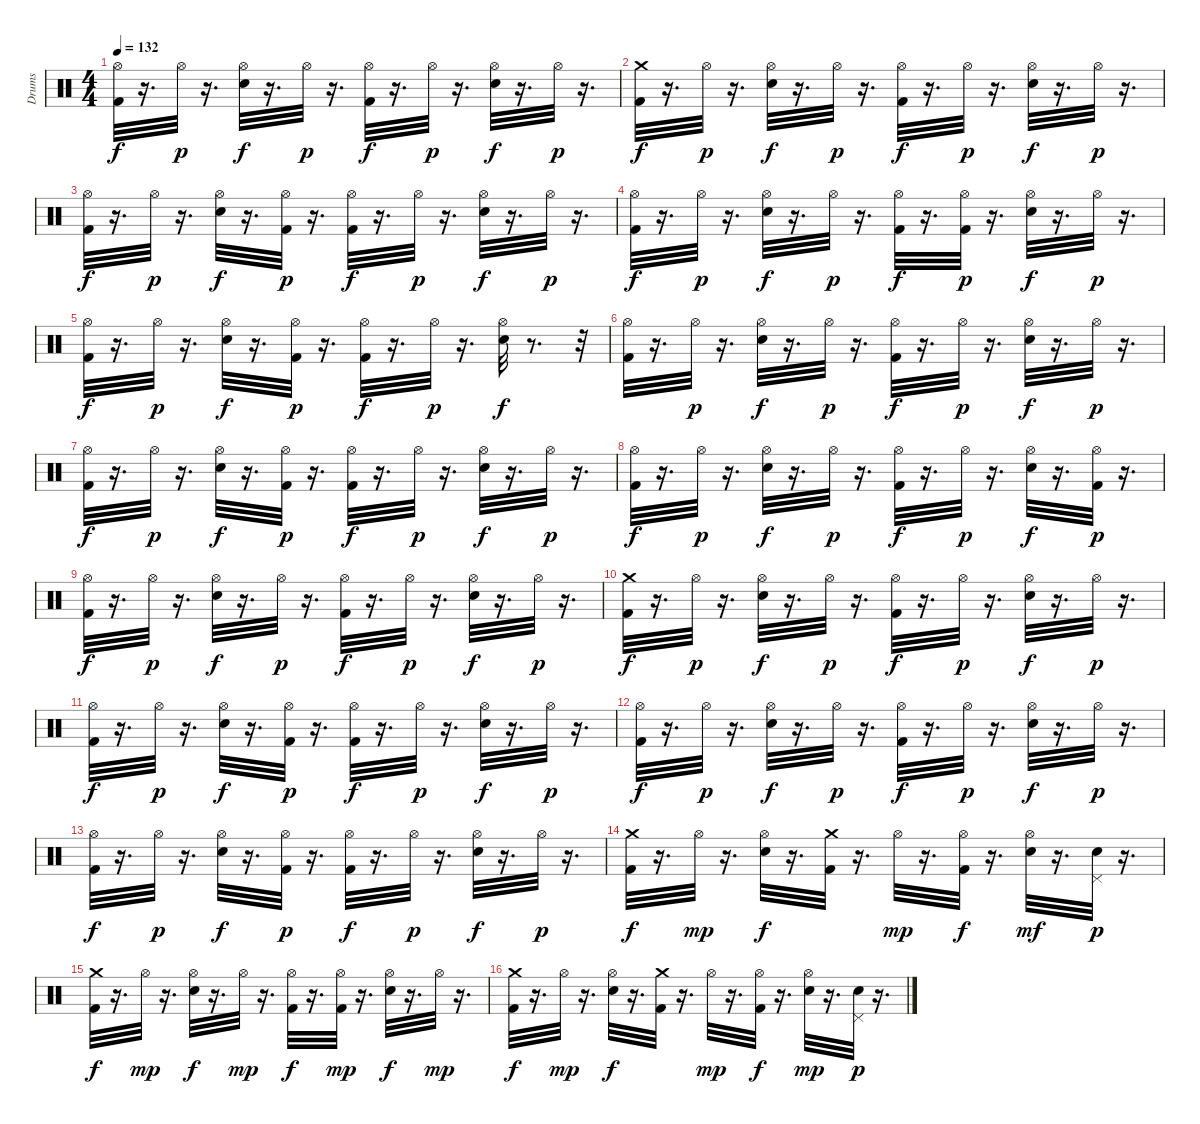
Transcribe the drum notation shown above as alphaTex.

\track ("Drums" "Drums") {instrument percussion}
\staff {score}
\articulation defaults
\ts (4 4)
\tempo 132
\clef neutral
\ks c
("Hi-Hat (open)" "Kick (hit) 2").32{dy f} r.16{d} "Hi-Hat (open)".32{dy p} r.16{d} ("Hi-Hat (open)" "Electric Snare (hit)").32{dy f} r.16{d} "Hi-Hat (open)".32{dy p} r.16{d} ("Hi-Hat (open)" "Kick (hit) 2").32{dy f} r.16{d} "Hi-Hat (open)".32{dy p} r.16{d} ("Electric Snare (hit)" "Hi-Hat (open)").32{dy f} r.16{d} "Hi-Hat (open)".32{dy p} r.16{d} |
("Crash medium (hit)" "Kick (hit) 2").32{dy f} r.16{d} "Hi-Hat (open)".32{dy p} r.16{d} ("Hi-Hat (open)" "Electric Snare (hit)").32{dy f} r.16{d} "Hi-Hat (open)".32{dy p} r.16{d} ("Hi-Hat (open)" "Kick (hit) 2").32{dy f} r.16{d} "Hi-Hat (open)".32{dy p} r.16{d} ("Hi-Hat (open)" "Electric Snare (hit)").32{dy f} r.16{d} "Hi-Hat (open)".32{dy p} r.16{d} |
("Hi-Hat (open)" "Kick (hit) 2").32{dy f} r.16{d} "Hi-Hat (open)".32{dy p} r.16{d} ("Hi-Hat (open)" "Electric Snare (hit)").32{dy f} r.16{d} ("Kick (hit) 2" "Hi-Hat (open)").32{dy p} r.16{d} ("Kick (hit) 2" "Hi-Hat (open)").32{dy f} r.16{d} "Hi-Hat (open)".32{dy p} r.16{d} ("Hi-Hat (open)" "Electric Snare (hit)").32{dy f} r.16{d} "Hi-Hat (open)".32{dy p} r.16{d} |
("Hi-Hat (open)" "Kick (hit) 2").32{dy f} r.16{d} "Hi-Hat (open)".32{dy p} r.16{d} ("Hi-Hat (open)" "Electric Snare (hit)").32{dy f} r.16{d} "Hi-Hat (open)".32{dy p} r.16{d} ("Hi-Hat (open)" "Kick (hit) 2").32{dy f} r.16{d} ("Hi-Hat (open)" "Kick (hit) 2").32{dy p} r.16{d} ("Electric Snare (hit)" "Hi-Hat (open)").32{dy f} r.16{d} "Hi-Hat (open)".32{dy p} r.16{d} |
("Hi-Hat (open)" "Kick (hit) 2").32{dy f} r.16{d} "Hi-Hat (open)".32{dy p} r.16{d} ("Hi-Hat (open)" "Electric Snare (hit)").32{dy f} r.16{d} ("Kick (hit) 2" "Hi-Hat (open)").32{dy p} r.16{d} ("Hi-Hat (open)" "Kick (hit) 2").32{dy f} r.16{d} "Hi-Hat (open)".32{dy p} r.16{d} ("Electric Snare (hit)" "Hi-Hat (open)").32{dy f} r.8{d} r.32 |
("Hi-Hat (open)" "Kick (hit) 2").32 r.16{d} "Hi-Hat (open)".32{dy p} r.16{d} ("Hi-Hat (open)" "Electric Snare (hit)").32{dy f} r.16{d} "Hi-Hat (open)".32{dy p} r.16{d} ("Hi-Hat (open)" "Kick (hit) 2").32{dy f} r.16{d} "Hi-Hat (open)".32{dy p} r.16{d} ("Electric Snare (hit)" "Hi-Hat (open)").32{dy f} r.16{d} "Hi-Hat (open)".32{dy p} r.16{d} |
("Hi-Hat (open)" "Kick (hit) 2").32{dy f} r.16{d} "Hi-Hat (open)".32{dy p} r.16{d} ("Hi-Hat (open)" "Electric Snare (hit)").32{dy f} r.16{d} ("Kick (hit) 2" "Hi-Hat (open)").32{dy p} r.16{d} ("Hi-Hat (open)" "Kick (hit) 2").32{dy f} r.16{d} "Hi-Hat (open)".32{dy p} r.16{d} ("Hi-Hat (open)" "Electric Snare (hit)").32{dy f} r.16{d} "Hi-Hat (open)".32{dy p} r.16{d} |
("Hi-Hat (open)" "Kick (hit) 2").32{dy f} r.16{d} "Hi-Hat (open)".32{dy p} r.16{d} ("Hi-Hat (open)" "Electric Snare (hit)").32{dy f} r.16{d} "Hi-Hat (open)".32{dy p} r.16{d} ("Kick (hit) 2" "Hi-Hat (open)").32{dy f} r.16{d} "Hi-Hat (open)".32{dy p} r.16{d} ("Hi-Hat (open)" "Electric Snare (hit)").32{dy f} r.16{d} ("Kick (hit) 2" "Hi-Hat (open)").32{dy p} r.16{d} |
("Hi-Hat (open)" "Kick (hit) 2").32{dy f} r.16{d} "Hi-Hat (open)".32{dy p} r.16{d} ("Electric Snare (hit)" "Hi-Hat (open)").32{dy f} r.16{d} "Hi-Hat (open)".32{dy p} r.16{d} ("Hi-Hat (open)" "Kick (hit) 2").32{dy f} r.16{d} "Hi-Hat (open)".32{dy p} r.16{d} ("Electric Snare (hit)" "Hi-Hat (open)").32{dy f} r.16{d} "Hi-Hat (open)".32{dy p} r.16{d} |
("Crash medium (hit)" "Kick (hit) 2").32{dy f} r.16{d} "Hi-Hat (open)".32{dy p} r.16{d} ("Hi-Hat (open)" "Electric Snare (hit)").32{dy f} r.16{d} "Hi-Hat (open)".32{dy p} r.16{d} ("Hi-Hat (open)" "Kick (hit) 2").32{dy f} r.16{d} "Hi-Hat (open)".32{dy p} r.16{d} ("Electric Snare (hit)" "Hi-Hat (open)").32{dy f} r.16{d} "Hi-Hat (open)".32{dy p} r.16{d} |
("Hi-Hat (open)" "Kick (hit) 2").32{dy f} r.16{d} "Hi-Hat (open)".32{dy p} r.16{d} ("Hi-Hat (open)" "Electric Snare (hit)").32{dy f} r.16{d} ("Kick (hit) 2" "Hi-Hat (open)").32{dy p} r.16{d} ("Hi-Hat (open)" "Kick (hit) 2").32{dy f} r.16{d} "Hi-Hat (open)".32{dy p} r.16{d} ("Hi-Hat (open)" "Electric Snare (hit)").32{dy f} r.16{d} "Hi-Hat (open)".32{dy p} r.16{d} |
("Hi-Hat (open)" "Kick (hit) 2").32{dy f} r.16{d} "Hi-Hat (open)".32{dy p} r.16{d} ("Hi-Hat (open)" "Electric Snare (hit)").32{dy f} r.16{d} "Hi-Hat (open)".32{dy p} r.16{d} ("Kick (hit) 2" "Hi-Hat (open)").32{dy f} r.16{d} "Hi-Hat (open)".32{dy p} r.16{d} ("Electric Snare (hit)" "Hi-Hat (open)").32{dy f} r.16{d} "Hi-Hat (open)".32{dy p} r.16{d} |
("Kick (hit) 2" "Hi-Hat (open)").32{dy f} r.16{d} "Hi-Hat (open)".32{dy p} r.16{d} ("Hi-Hat (open)" "Electric Snare (hit)").32{dy f} r.16{d} ("Kick (hit) 2" "Hi-Hat (open)").32{dy p} r.16{d} ("Kick (hit) 2" "Hi-Hat (open)").32{dy f} r.16{d} "Hi-Hat (open)".32{dy p} r.16{d} ("Hi-Hat (open)" "Electric Snare (hit)").32{dy f} r.16{d} "Hi-Hat (open)".32{dy p} r.16{d} |
("Crash medium (hit)" "Kick (hit) 2").32{dy f} r.16{d} "Hi-Hat (open)".32{dy mp} r.16{d} ("Hi-Hat (open)" "Electric Snare (hit)").32{dy f} r.16{d} ("Kick (hit) 2" "Crash medium (hit)").32 r.16{d} "Hi-Hat (open)".32{dy mp} r.16{d} ("Hi-Hat (open)" "Kick (hit) 2").32{dy f} r.16{d} ("Hi-Hat (open)" "Electric Snare (hit)").32{dy mf} r.16{d} ("Pedal Hi-Hat (hit)" "Electric Snare (hit)").32{dy p} r.16{d} |
("Crash medium (hit)" "Kick (hit) 2").32{dy f} r.16{d} "Hi-Hat (open)".32{dy mp} r.16{d} ("Hi-Hat (open)" "Electric Snare (hit)").32{dy f} r.16{d} "Hi-Hat (open)".32{dy mp} r.16{d} ("Kick (hit) 2" "Hi-Hat (open)").32{dy f} r.16{d} ("Kick (hit) 2" "Hi-Hat (open)").32{dy mp} r.16{d} ("Hi-Hat (open)" "Electric Snare (hit)").32{dy f} r.16{d} "Hi-Hat (open)".32{dy mp} r.16{d} |
("Crash medium (hit)" "Kick (hit) 2").32{dy f} r.16{d} "Hi-Hat (open)".32{dy mp} r.16{d} ("Hi-Hat (open)" "Electric Snare (hit)").32{dy f} r.16{d} ("Kick (hit) 2" "Crash medium (hit)").32 r.16{d} "Hi-Hat (open)".32{dy mp} r.16{d} ("Kick (hit) 2" "Hi-Hat (open)").32{dy f} r.16{d} ("Electric Snare (hit)" "Hi-Hat (open)").32{dy mp} r.16{d} ("Electric Snare (hit)" "Pedal Hi-Hat (hit)").32{dy p} r.16{d}
